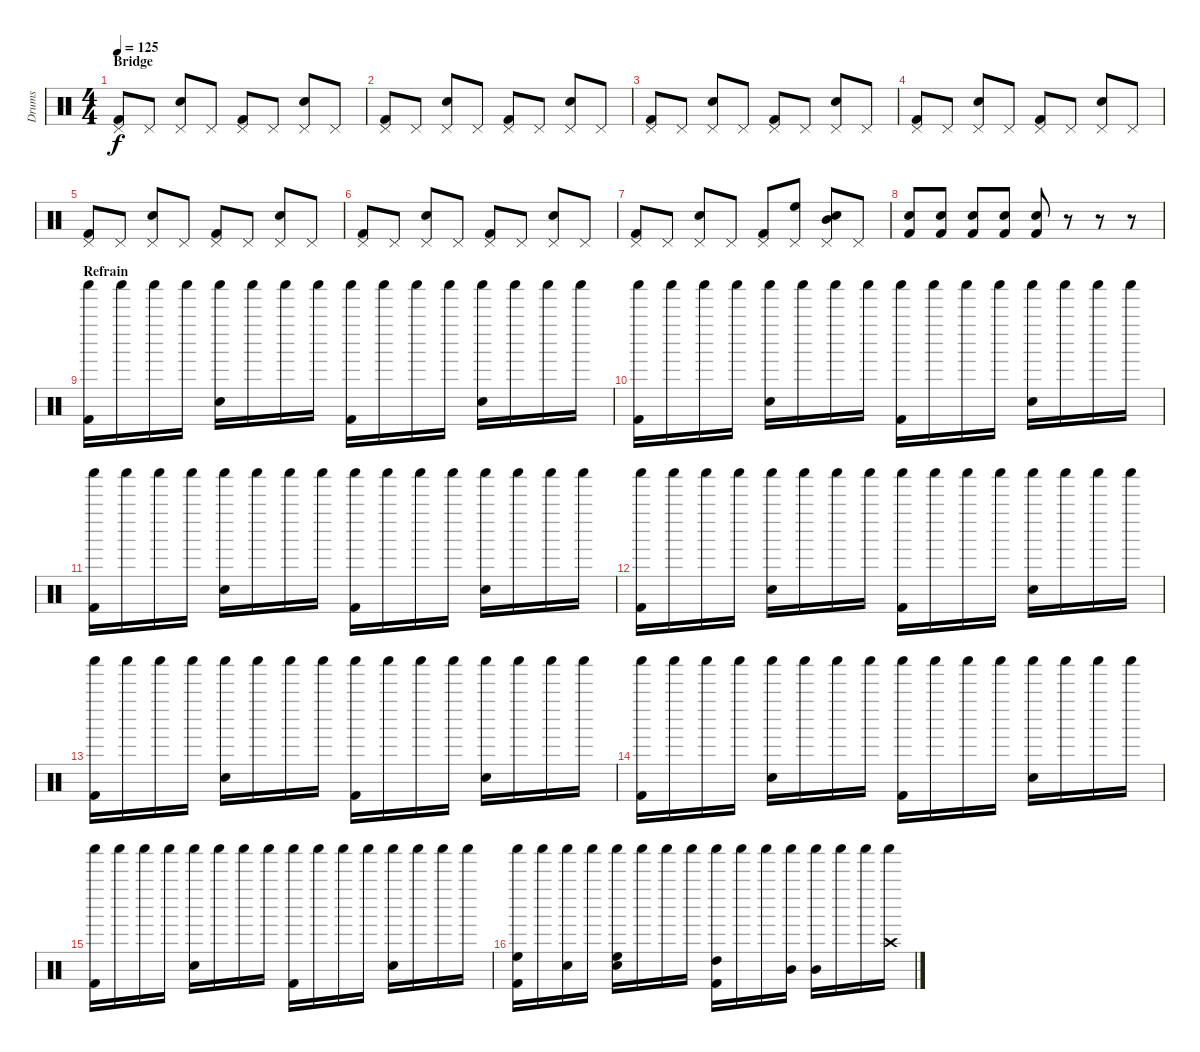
\track ("Drums" "Drums") {instrument percussion}
\staff {score}
\articulation defaults
\ts (4 4)
\section ("" "Bridge")
\tempo 125
\clef neutral
\ks c
("Pedal Hi-Hat (hit)" "Kick (hit) 2").8{dy f} "Pedal Hi-Hat (hit)".8 ("Pedal Hi-Hat (hit)" "Snare (hit) 2").8 "Pedal Hi-Hat (hit)".8 ("Pedal Hi-Hat (hit)" "Kick (hit) 2").8 "Pedal Hi-Hat (hit)".8 ("Pedal Hi-Hat (hit)" "Snare (hit) 2").8 "Pedal Hi-Hat (hit)".8 |
("Pedal Hi-Hat (hit)" "Kick (hit) 2").8 "Pedal Hi-Hat (hit)".8 ("Pedal Hi-Hat (hit)" "Snare (hit) 2").8 "Pedal Hi-Hat (hit)".8 ("Pedal Hi-Hat (hit)" "Kick (hit) 2").8 "Pedal Hi-Hat (hit)".8 ("Pedal Hi-Hat (hit)" "Snare (hit) 2").8 "Pedal Hi-Hat (hit)".8 |
("Pedal Hi-Hat (hit)" "Kick (hit) 2").8 "Pedal Hi-Hat (hit)".8 ("Pedal Hi-Hat (hit)" "Snare (hit) 2").8 "Pedal Hi-Hat (hit)".8 ("Pedal Hi-Hat (hit)" "Kick (hit) 2").8 "Pedal Hi-Hat (hit)".8 ("Pedal Hi-Hat (hit)" "Snare (hit) 2").8 "Pedal Hi-Hat (hit)".8 |
("Pedal Hi-Hat (hit)" "Kick (hit) 2").8 "Pedal Hi-Hat (hit)".8 ("Pedal Hi-Hat (hit)" "Snare (hit) 2").8 "Pedal Hi-Hat (hit)".8 ("Pedal Hi-Hat (hit)" "Kick (hit) 2").8 "Pedal Hi-Hat (hit)".8 ("Pedal Hi-Hat (hit)" "Snare (hit) 2").8 "Pedal Hi-Hat (hit)".8 |
("Pedal Hi-Hat (hit)" "Kick (hit) 2").8 "Pedal Hi-Hat (hit)".8 ("Pedal Hi-Hat (hit)" "Snare (hit) 2").8 "Pedal Hi-Hat (hit)".8 ("Pedal Hi-Hat (hit)" "Kick (hit) 2").8 "Pedal Hi-Hat (hit)".8 ("Pedal Hi-Hat (hit)" "Snare (hit) 2").8 "Pedal Hi-Hat (hit)".8 |
("Pedal Hi-Hat (hit)" "Kick (hit) 2").8 "Pedal Hi-Hat (hit)".8 ("Pedal Hi-Hat (hit)" "Snare (hit) 2").8 "Pedal Hi-Hat (hit)".8 ("Pedal Hi-Hat (hit)" "Kick (hit) 2").8 "Pedal Hi-Hat (hit)".8 ("Pedal Hi-Hat (hit)" "Snare (hit) 2").8 "Pedal Hi-Hat (hit)".8 |
("Pedal Hi-Hat (hit)" "Kick (hit) 2").8 "Pedal Hi-Hat (hit)".8 ("Pedal Hi-Hat (hit)" "Snare (hit) 2").8 "Pedal Hi-Hat (hit)".8 ("Pedal Hi-Hat (hit)" "Kick (hit) 2").8 ("Pedal Hi-Hat (hit)" "High Floor Tom (hit)").8 ("Pedal Hi-Hat (hit)" "Snare (hit) 2" "Mid Tom (hit)").8 "Pedal Hi-Hat (hit)".8 |
("Snare (hit) 2" "Kick (hit) 2").8 ("Snare (hit) 2" "Kick (hit) 2").8 ("Snare (hit) 2" "Kick (hit) 2").8 ("Snare (hit) 2" "Kick (hit) 2").8 ("Snare (hit) 2" "Kick (hit) 2").8 r.8 r.8 r.8 |
\section ("" "Refrain")
("Shaker (hit)" "Kick (hit) 2").16 "Shaker (hit)".16 "Shaker (hit)".16 "Shaker (hit)".16 ("Shaker (hit)" "Snare (hit) 2").16 "Shaker (hit)".16 "Shaker (hit)".16 "Shaker (hit)".16 ("Shaker (hit)" "Kick (hit) 2").16 "Shaker (hit)".16 "Shaker (hit)".16 "Shaker (hit)".16 ("Shaker (hit)" "Snare (hit) 2").16 "Shaker (hit)".16 "Shaker (hit)".16 "Shaker (hit)".16 |
("Shaker (hit)" "Kick (hit) 2").16 "Shaker (hit)".16 "Shaker (hit)".16 "Shaker (hit)".16 ("Shaker (hit)" "Snare (hit) 2").16 "Shaker (hit)".16 "Shaker (hit)".16 "Shaker (hit)".16 ("Shaker (hit)" "Kick (hit) 2").16 "Shaker (hit)".16 "Shaker (hit)".16 "Shaker (hit)".16 ("Shaker (hit)" "Snare (hit) 2").16 "Shaker (hit)".16 "Shaker (hit)".16 "Shaker (hit)".16 |
("Shaker (hit)" "Kick (hit) 2").16 "Shaker (hit)".16 "Shaker (hit)".16 "Shaker (hit)".16 ("Shaker (hit)" "Snare (hit) 2").16 "Shaker (hit)".16 "Shaker (hit)".16 "Shaker (hit)".16 ("Shaker (hit)" "Kick (hit) 2").16 "Shaker (hit)".16 "Shaker (hit)".16 "Shaker (hit)".16 ("Shaker (hit)" "Snare (hit) 2").16 "Shaker (hit)".16 "Shaker (hit)".16 "Shaker (hit)".16 |
("Shaker (hit)" "Kick (hit) 2").16 "Shaker (hit)".16 "Shaker (hit)".16 "Shaker (hit)".16 ("Shaker (hit)" "Snare (hit) 2").16 "Shaker (hit)".16 "Shaker (hit)".16 "Shaker (hit)".16 ("Shaker (hit)" "Kick (hit) 2").16 "Shaker (hit)".16 "Shaker (hit)".16 "Shaker (hit)".16 ("Shaker (hit)" "Snare (hit) 2").16 "Shaker (hit)".16 "Shaker (hit)".16 "Shaker (hit)".16 |
("Shaker (hit)" "Kick (hit) 2").16 "Shaker (hit)".16 "Shaker (hit)".16 "Shaker (hit)".16 ("Shaker (hit)" "Snare (hit) 2").16 "Shaker (hit)".16 "Shaker (hit)".16 "Shaker (hit)".16 ("Shaker (hit)" "Kick (hit) 2").16 "Shaker (hit)".16 "Shaker (hit)".16 "Shaker (hit)".16 ("Shaker (hit)" "Snare (hit) 2").16 "Shaker (hit)".16 "Shaker (hit)".16 "Shaker (hit)".16 |
("Shaker (hit)" "Kick (hit) 2").16 "Shaker (hit)".16 "Shaker (hit)".16 "Shaker (hit)".16 ("Shaker (hit)" "Snare (hit) 2").16 "Shaker (hit)".16 "Shaker (hit)".16 "Shaker (hit)".16 ("Shaker (hit)" "Kick (hit) 2").16 "Shaker (hit)".16 "Shaker (hit)".16 "Shaker (hit)".16 ("Shaker (hit)" "Snare (hit) 2").16 "Shaker (hit)".16 "Shaker (hit)".16 "Shaker (hit)".16 |
("Shaker (hit)" "Kick (hit) 2").16 "Shaker (hit)".16 "Shaker (hit)".16 "Shaker (hit)".16 ("Shaker (hit)" "Snare (hit) 2").16 "Shaker (hit)".16 "Shaker (hit)".16 "Shaker (hit)".16 ("Shaker (hit)" "Kick (hit) 2").16 "Shaker (hit)".16 "Shaker (hit)".16 "Shaker (hit)".16 ("Shaker (hit)" "Snare (hit) 2").16 "Shaker (hit)".16 "Shaker (hit)".16 "Shaker (hit)".16 |
("Shaker (hit)" "High Floor Tom (hit)" "Kick (hit) 2").16 "Shaker (hit)".16 ("Shaker (hit)" "Electric Snare (hit)").16 "Shaker (hit)".16 ("Shaker (hit)" "High Floor Tom (hit)" "Snare (hit) 2").16 "Shaker (hit)".16 "Shaker (hit)".16 "Shaker (hit)".16 ("Shaker (hit)" "High Tom (hit)" "Kick (hit) 2").16 "Shaker (hit)".16 "Shaker (hit)".16 ("Shaker (hit)" "Mid Tom (hit)").16 ("Shaker (hit)" "Mid Tom (hit)").16 "Shaker (hit)".16 "Shaker (hit)".16 ("Shaker (hit)" "Crash high (hit)").16
